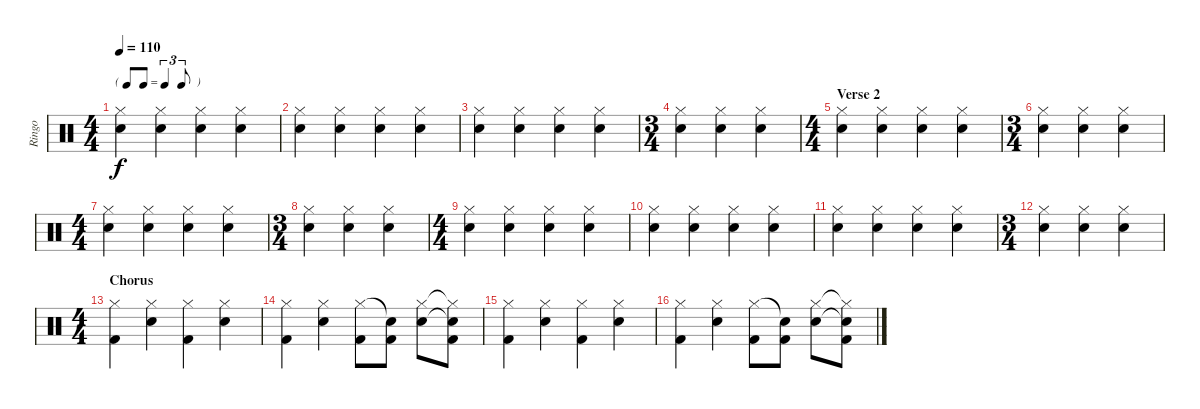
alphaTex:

\track ("Ringo" "Ringo") {instrument percussion}
\staff {score}
\articulation defaults
\ts (4 4)
\tf triplet8th
\tempo 110
\clef neutral
\ks c
("Hi-Hat (closed)" "Snare (hit) 2").4{dy f} ("Hi-Hat (closed)" "Snare (hit) 2").4 ("Hi-Hat (closed)" "Snare (hit) 2").4 ("Hi-Hat (closed)" "Snare (hit) 2").4 |
("Hi-Hat (closed)" "Snare (hit) 2").4 ("Hi-Hat (closed)" "Snare (hit) 2").4 ("Hi-Hat (closed)" "Snare (hit) 2").4 ("Hi-Hat (closed)" "Snare (hit) 2").4 |
("Hi-Hat (closed)" "Snare (hit) 2").4 ("Hi-Hat (closed)" "Snare (hit) 2").4 ("Hi-Hat (closed)" "Snare (hit) 2").4 ("Hi-Hat (closed)" "Snare (hit) 2").4 |
\ts (3 4)
("Hi-Hat (closed)" "Snare (hit) 2").4 ("Hi-Hat (closed)" "Snare (hit) 2").4 ("Hi-Hat (closed)" "Snare (hit) 2").4 |
\ts (4 4)
\section ("" "Verse 2")
("Hi-Hat (closed)" "Snare (hit) 2").4 ("Hi-Hat (closed)" "Snare (hit) 2").4 ("Hi-Hat (closed)" "Snare (hit) 2").4 ("Hi-Hat (closed)" "Snare (hit) 2").4 |
\ts (3 4)
("Hi-Hat (closed)" "Snare (hit) 2").4 ("Hi-Hat (closed)" "Snare (hit) 2").4 ("Hi-Hat (closed)" "Snare (hit) 2").4 |
\ts (4 4)
("Hi-Hat (closed)" "Snare (hit) 2").4 ("Hi-Hat (closed)" "Snare (hit) 2").4 ("Hi-Hat (closed)" "Snare (hit) 2").4 ("Hi-Hat (closed)" "Snare (hit) 2").4 |
\ts (3 4)
("Hi-Hat (closed)" "Snare (hit) 2").4 ("Hi-Hat (closed)" "Snare (hit) 2").4 ("Hi-Hat (closed)" "Snare (hit) 2").4 |
\ts (4 4)
("Hi-Hat (closed)" "Snare (hit) 2").4 ("Hi-Hat (closed)" "Snare (hit) 2").4 ("Hi-Hat (closed)" "Snare (hit) 2").4 ("Hi-Hat (closed)" "Snare (hit) 2").4 |
("Hi-Hat (closed)" "Snare (hit) 2").4 ("Hi-Hat (closed)" "Snare (hit) 2").4 ("Hi-Hat (closed)" "Snare (hit) 2").4 ("Hi-Hat (closed)" "Snare (hit) 2").4 |
("Hi-Hat (closed)" "Snare (hit) 2").4 ("Hi-Hat (closed)" "Snare (hit) 2").4 ("Hi-Hat (closed)" "Snare (hit) 2").4 ("Hi-Hat (closed)" "Snare (hit) 2").4 |
\ts (3 4)
("Hi-Hat (closed)" "Snare (hit) 2").4 ("Hi-Hat (closed)" "Snare (hit) 2").4 ("Hi-Hat (closed)" "Snare (hit) 2").4 |
\ts (4 4)
\section ("" "Chorus")
("Hi-Hat (closed)" "Kick (hit) 2").4 ("Hi-Hat (closed)" "Snare (hit) 2").4 ("Hi-Hat (closed)" "Kick (hit) 2").4 ("Hi-Hat (closed)" "Snare (hit) 2").4 |
("Hi-Hat (closed)" "Kick (hit) 2").4 ("Hi-Hat (closed)" "Snare (hit) 2").4 ("Hi-Hat (closed)" "Kick (hit) 2").8 ("Snare (hit)"{t} "Kick (hit) 2").8 ("Hi-Hat (closed)" "Snare (hit) 2").8 ("Hi-Hat (closed)"{t} "Snare (hit) 2"{t} "Kick (hit) 2").8 |
("Hi-Hat (closed)" "Kick (hit) 2").4 ("Hi-Hat (closed)" "Snare (hit) 2").4 ("Hi-Hat (closed)" "Kick (hit) 2").4 ("Hi-Hat (closed)" "Snare (hit) 2").4 |
("Hi-Hat (closed)" "Kick (hit) 2").4 ("Hi-Hat (closed)" "Snare (hit) 2").4 ("Hi-Hat (closed)" "Kick (hit) 2").8 ("Snare (hit)"{t} "Kick (hit) 2").8 ("Hi-Hat (closed)" "Snare (hit) 2").8 ("Hi-Hat (closed)"{t} "Snare (hit) 2"{t} "Kick (hit) 2").8
